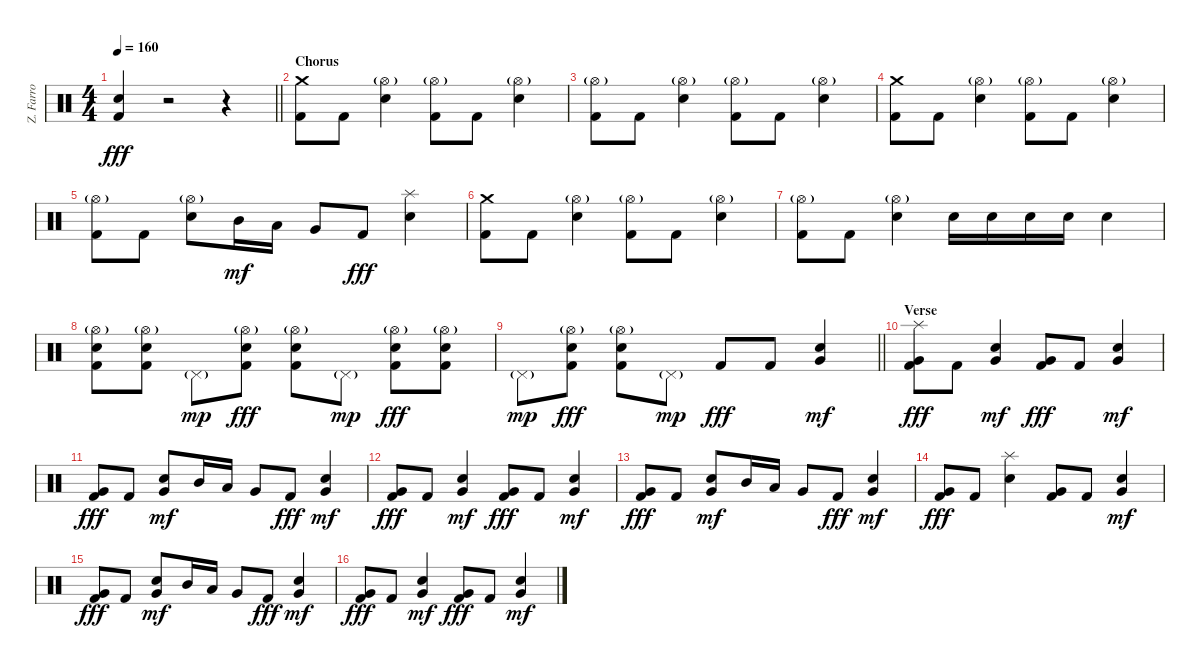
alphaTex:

\track ("Z. Farro" "Z. Farro") {instrument percussion}
\staff {score}
\articulation defaults
\ts (4 4)
\tempo 160
\clef neutral
\barLineRight lightlight
\ks c
("Electric Snare (hit)" "Kick (hit) 2").4{dy fff} r.2 r.4 |
\section ("" "Chorus")
("Crash medium (hit)" "Kick (hit) 2").8 "Kick (hit) 2".8 ("Hi-Hat (open)"{g} "Electric Snare (hit)").4 ("Hi-Hat (open)"{g} "Kick (hit) 2").8 "Kick (hit) 2".8 ("Hi-Hat (open)"{g} "Electric Snare (hit)").4 |
("Hi-Hat (open)"{g} "Kick (hit) 2").8 "Kick (hit) 2".8 ("Hi-Hat (open)"{g} "Electric Snare (hit)").4 ("Hi-Hat (open)"{g} "Kick (hit) 2").8 "Kick (hit) 2".8 ("Hi-Hat (open)"{g} "Electric Snare (hit)").4 |
("Crash medium (hit)" "Kick (hit) 2").8 "Kick (hit) 2".8 ("Hi-Hat (open)"{g} "Electric Snare (hit)").4 ("Hi-Hat (open)"{g} "Kick (hit) 2").8 "Kick (hit) 2".8 ("Hi-Hat (open)"{g} "Electric Snare (hit)").4 |
("Hi-Hat (open)"{g} "Kick (hit) 2").8 "Kick (hit) 2".8 ("Hi-Hat (open)"{g} "Electric Snare (hit)").8 "Mid Tom (hit)".16{dy mf} "Low Tom (hit)".16 "Very Low Tom (hit)".8 "Kick (hit) 2".8{dy fff} ("Splash (hit)" "Electric Snare (hit)").4 |
("Crash medium (hit)" "Kick (hit) 2").8 "Kick (hit) 2".8 ("Hi-Hat (open)"{g} "Electric Snare (hit)").4 ("Hi-Hat (open)"{g} "Kick (hit) 2").8 "Kick (hit) 2".8 ("Hi-Hat (open)"{g} "Electric Snare (hit)").4 |
("Hi-Hat (open)"{g} "Kick (hit) 2").8 "Kick (hit) 2".8 ("Hi-Hat (open)"{g} "Electric Snare (hit)").4 "Electric Snare (hit)".16 "Electric Snare (hit)".16 "Electric Snare (hit)".16 "Electric Snare (hit)".16 "Electric Snare (hit)".4 |
("Hi-Hat (open)"{g} "Electric Snare (hit)" "Kick (hit) 2").8 ("Hi-Hat (open)"{g} "Electric Snare (hit)" "Kick (hit) 2").8 "Pedal Hi-Hat (hit)"{g}.8{dy mp} ("Hi-Hat (open)"{g} "Electric Snare (hit)" "Kick (hit) 2").8{dy fff} ("Hi-Hat (open)"{g} "Electric Snare (hit)" "Kick (hit) 2").8 "Pedal Hi-Hat (hit)"{g}.8{dy mp} ("Hi-Hat (open)"{g} "Electric Snare (hit)" "Kick (hit) 2").8{dy fff} ("Hi-Hat (open)"{g} "Electric Snare (hit)" "Kick (hit) 2").8 |
\barLineRight lightlight "Pedal Hi-Hat (hit)"{g}.8{dy mp}
("Hi-Hat (open)"{g} "Electric Snare (hit)" "Kick (hit) 2").8{dy fff} ("Hi-Hat (open)"{g} "Electric Snare (hit)" "Kick (hit) 2").8 "Pedal Hi-Hat (hit)"{g}.8{dy mp} "Kick (hit) 2".8{dy fff} "Kick (hit) 2".8 ("Electric Snare (hit)" "Very Low Tom (hit)").4{dy mf} |
\section ("" "Verse")
("Splash (hit)" "Very Low Tom (hit)" "Kick (hit) 2").8{dy fff} "Kick (hit) 2".8 ("Electric Snare (hit)" "Very Low Tom (hit)").4{dy mf} ("Very Low Tom (hit)" "Kick (hit) 2").8{dy fff} "Kick (hit) 2".8 ("Electric Snare (hit)" "Very Low Tom (hit)").4{dy mf} |
("Very Low Tom (hit)" "Kick (hit) 2").8{dy fff} "Kick (hit) 2".8 ("Electric Snare (hit)" "Very Low Tom (hit)").8{dy mf} "Mid Tom (hit)".16 "Low Tom (hit)".16 "Very Low Tom (hit)".8 "Kick (hit) 2".8{dy fff} ("Electric Snare (hit)" "Very Low Tom (hit)").4{dy mf} |
("Very Low Tom (hit)" "Kick (hit) 2").8{dy fff} "Kick (hit) 2".8 ("Electric Snare (hit)" "Very Low Tom (hit)").4{dy mf} ("Very Low Tom (hit)" "Kick (hit) 2").8{dy fff} "Kick (hit) 2".8 ("Electric Snare (hit)" "Very Low Tom (hit)").4{dy mf} |
("Very Low Tom (hit)" "Kick (hit) 2").8{dy fff} "Kick (hit) 2".8 ("Electric Snare (hit)" "Very Low Tom (hit)").8{dy mf} "Mid Tom (hit)".16 "Low Tom (hit)".16 "Very Low Tom (hit)".8 "Kick (hit) 2".8{dy fff} ("Electric Snare (hit)" "Very Low Tom (hit)").4{dy mf} |
("Very Low Tom (hit)" "Kick (hit) 2").8{dy fff} "Kick (hit) 2".8 ("Splash (hit)" "Electric Snare (hit)").4 ("Very Low Tom (hit)" "Kick (hit) 2").8 "Kick (hit) 2".8 ("Electric Snare (hit)" "Very Low Tom (hit)").4{dy mf} |
("Very Low Tom (hit)" "Kick (hit) 2").8{dy fff} "Kick (hit) 2".8 ("Electric Snare (hit)" "Very Low Tom (hit)").8{dy mf} "Mid Tom (hit)".16 "Low Tom (hit)".16 "Very Low Tom (hit)".8 "Kick (hit) 2".8{dy fff} ("Electric Snare (hit)" "Very Low Tom (hit)").4{dy mf} |
("Very Low Tom (hit)" "Kick (hit) 2").8{dy fff} "Kick (hit) 2".8 ("Electric Snare (hit)" "Very Low Tom (hit)").4{dy mf} ("Very Low Tom (hit)" "Kick (hit) 2").8{dy fff} "Kick (hit) 2".8 ("Electric Snare (hit)" "Very Low Tom (hit)").4{dy mf}
